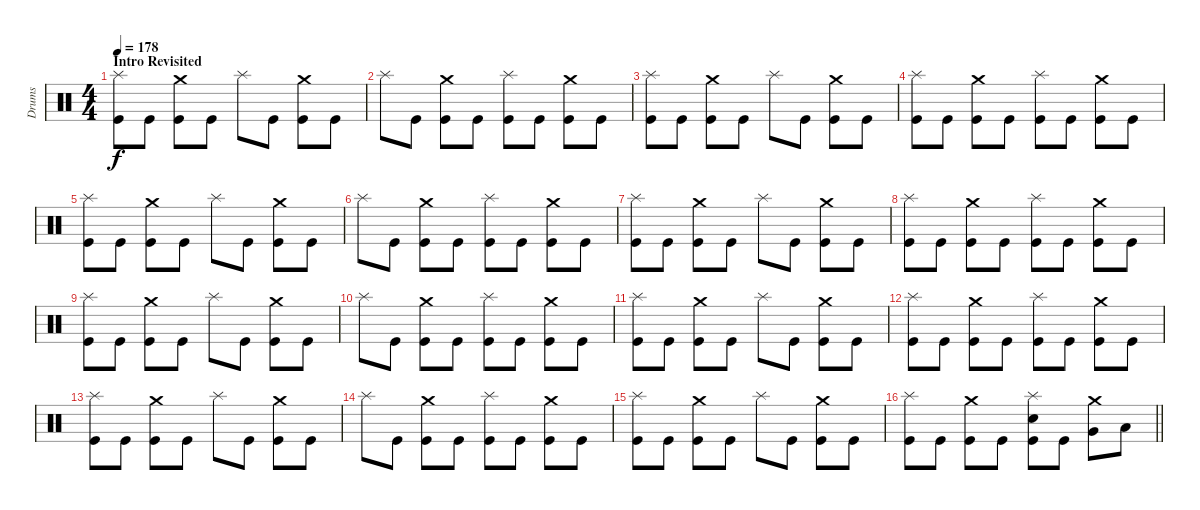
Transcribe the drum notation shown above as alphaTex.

\track ("Drums" "Drums") {instrument percussion}
\staff {score}
\articulation defaults
\ts (4 4)
\section ("" "Intro Revisited")
\tempo 178
\clef neutral
\ks c
("Splash (hit)" "Kick (hit)").8{dy f} "Kick (hit)".8 ("Crash medium (hit)" "Kick (hit)").8 "Kick (hit)".8 "Splash (hit)".8 "Kick (hit)".8 ("Crash medium (hit)" "Kick (hit)").8 "Kick (hit)".8 |
"Splash (hit)".8 "Kick (hit)".8 ("Crash medium (hit)" "Kick (hit)").8 "Kick (hit)".8 ("Splash (hit)" "Kick (hit)").8 "Kick (hit)".8 ("Crash medium (hit)" "Kick (hit)").8 "Kick (hit)".8 |
("Splash (hit)" "Kick (hit)").8 "Kick (hit)".8 ("Crash medium (hit)" "Kick (hit)").8 "Kick (hit)".8 "Splash (hit)".8 "Kick (hit)".8 ("Crash medium (hit)" "Kick (hit)").8 "Kick (hit)".8 |
("Splash (hit)" "Kick (hit)").8 "Kick (hit)".8 ("Crash medium (hit)" "Kick (hit)").8 "Kick (hit)".8 ("Splash (hit)" "Kick (hit)").8 "Kick (hit)".8 ("Crash medium (hit)" "Kick (hit)").8 "Kick (hit)".8 |
("Splash (hit)" "Kick (hit)").8 "Kick (hit)".8 ("Crash medium (hit)" "Kick (hit)").8 "Kick (hit)".8 "Splash (hit)".8 "Kick (hit)".8 ("Crash medium (hit)" "Kick (hit)").8 "Kick (hit)".8 |
"Splash (hit)".8 "Kick (hit)".8 ("Crash medium (hit)" "Kick (hit)").8 "Kick (hit)".8 ("Splash (hit)" "Kick (hit)").8 "Kick (hit)".8 ("Crash medium (hit)" "Kick (hit)").8 "Kick (hit)".8 |
("Splash (hit)" "Kick (hit)").8 "Kick (hit)".8 ("Crash medium (hit)" "Kick (hit)").8 "Kick (hit)".8 "Splash (hit)".8 "Kick (hit)".8 ("Crash medium (hit)" "Kick (hit)").8 "Kick (hit)".8 |
("Splash (hit)" "Kick (hit)").8 "Kick (hit)".8 ("Crash medium (hit)" "Kick (hit)").8 "Kick (hit)".8 ("Splash (hit)" "Kick (hit)").8 "Kick (hit)".8 ("Crash medium (hit)" "Kick (hit)").8 "Kick (hit)".8 |
("Splash (hit)" "Kick (hit)").8 "Kick (hit)".8 ("Crash medium (hit)" "Kick (hit)").8 "Kick (hit)".8 "Splash (hit)".8 "Kick (hit)".8 ("Crash medium (hit)" "Kick (hit)").8 "Kick (hit)".8 |
"Splash (hit)".8 "Kick (hit)".8 ("Crash medium (hit)" "Kick (hit)").8 "Kick (hit)".8 ("Splash (hit)" "Kick (hit)").8 "Kick (hit)".8 ("Crash medium (hit)" "Kick (hit)").8 "Kick (hit)".8 |
("Splash (hit)" "Kick (hit)").8 "Kick (hit)".8 ("Crash medium (hit)" "Kick (hit)").8 "Kick (hit)".8 "Splash (hit)".8 "Kick (hit)".8 ("Crash medium (hit)" "Kick (hit)").8 "Kick (hit)".8 |
("Splash (hit)" "Kick (hit)").8 "Kick (hit)".8 ("Crash medium (hit)" "Kick (hit)").8 "Kick (hit)".8 ("Splash (hit)" "Kick (hit)").8 "Kick (hit)".8 ("Crash medium (hit)" "Kick (hit)").8 "Kick (hit)".8 |
("Splash (hit)" "Kick (hit)").8 "Kick (hit)".8 ("Crash medium (hit)" "Kick (hit)").8 "Kick (hit)".8 "Splash (hit)".8 "Kick (hit)".8 ("Crash medium (hit)" "Kick (hit)").8 "Kick (hit)".8 |
"Splash (hit)".8 "Kick (hit)".8 ("Crash medium (hit)" "Kick (hit)").8 "Kick (hit)".8 ("Splash (hit)" "Kick (hit)").8 "Kick (hit)".8 ("Crash medium (hit)" "Kick (hit)").8 "Kick (hit)".8 |
("Splash (hit)" "Kick (hit)").8 "Kick (hit)".8 ("Crash medium (hit)" "Kick (hit)").8 "Kick (hit)".8 "Splash (hit)".8 "Kick (hit)".8 ("Crash medium (hit)" "Kick (hit)").8 "Kick (hit)".8 |
\barLineRight lightlight
("Splash (hit)" "Kick (hit)").8 "Kick (hit)".8 ("Crash medium (hit)" "Kick (hit)").8 "Kick (hit)".8 ("Splash (hit)" "Snare (hit) 2" "Kick (hit)").8 "Kick (hit)".8 ("Crash medium (hit)" "Very Low Tom (hit)").8 "Low Floor Tom (hit)".8
